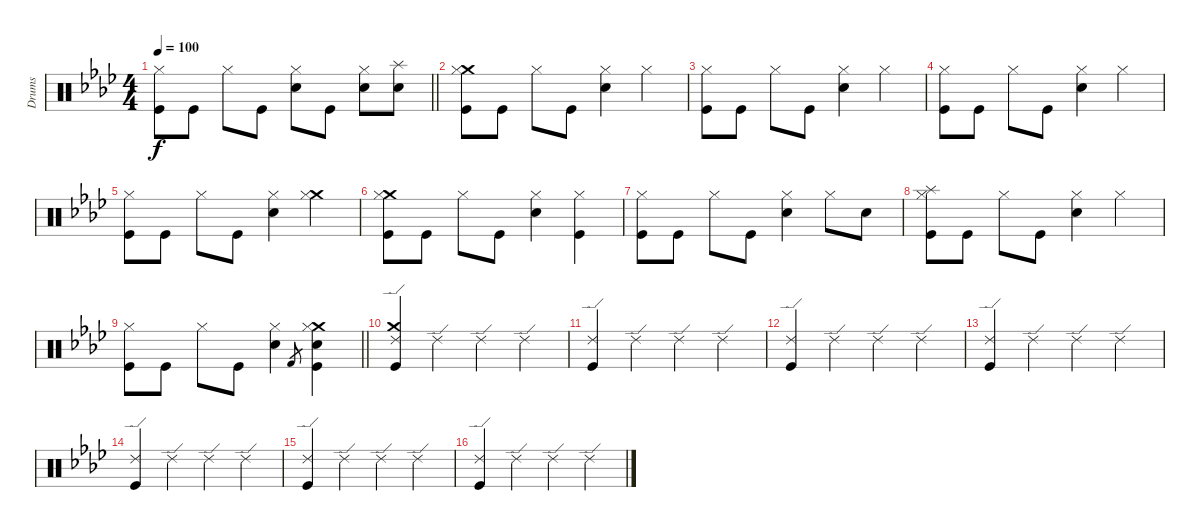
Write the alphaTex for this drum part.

\track ("Drums" "Drums") {instrument percussion}
\staff {score}
\articulation defaults
\ts (4 4)
\tempo 100
\clef neutral
\barLineRight lightlight
\ks ab
("Hi-Hat (closed)" "Kick (hit)").8{dy f} "Kick (hit)".8 "Hi-Hat (closed)".8 "Kick (hit)".8 ("Hi-Hat (closed)" "Electric Snare (hit)").8 "Kick (hit)".8 ("Hi-Hat (closed)" "Electric Snare (hit)").8 ("Splash (hit)" "Electric Snare (hit)").8 |
("Crash medium (hit)" "Hi-Hat (closed)" "Kick (hit)").8 "Kick (hit)".8 "Hi-Hat (closed)".8 "Kick (hit)".8 ("Hi-Hat (closed)" "Electric Snare (hit)").4 "Hi-Hat (closed)".4 |
("Hi-Hat (closed)" "Kick (hit)").8 "Kick (hit)".8 "Hi-Hat (closed)".8 "Kick (hit)".8 ("Hi-Hat (closed)" "Electric Snare (hit)").4 "Hi-Hat (closed)".4 |
("Hi-Hat (closed)" "Kick (hit)").8 "Kick (hit)".8 "Hi-Hat (closed)".8 "Kick (hit)".8 ("Hi-Hat (closed)" "Electric Snare (hit)").4 "Hi-Hat (closed)".4 |
("Hi-Hat (closed)" "Kick (hit)").8 "Kick (hit)".8 "Hi-Hat (closed)".8 "Kick (hit)".8 ("Hi-Hat (closed)" "Electric Snare (hit)").4 ("Crash medium (hit)" "Hi-Hat (closed)").4 |
("Crash medium (hit)" "Hi-Hat (closed)" "Kick (hit)").8 "Kick (hit)".8 "Hi-Hat (closed)".8 "Kick (hit)".8 ("Hi-Hat (closed)" "Electric Snare (hit)").4 ("Hi-Hat (closed)" "Kick (hit)").4 |
("Hi-Hat (closed)" "Kick (hit)").8 "Kick (hit)".8 "Hi-Hat (closed)".8 "Kick (hit)".8 ("Hi-Hat (closed)" "Electric Snare (hit)").4 "Hi-Hat (closed)".8 "Electric Snare (hit)".8 |
("Splash (hit)" "Hi-Hat (closed)" "Kick (hit)").8 "Kick (hit)".8 "Hi-Hat (closed)".8 "Kick (hit)".8 ("Hi-Hat (closed)" "Electric Snare (hit)").4 "Hi-Hat (closed)".4 |
\barLineRight lightlight
("Hi-Hat (closed)" "Kick (hit)").8 "Kick (hit)".8 "Hi-Hat (closed)".8 "Kick (hit)".8 ("Hi-Hat (closed)" "Electric Snare (hit)").4 "Kick (hit) 2".8{gr} ("Crash medium (hit)" "Hi-Hat (closed)" "Electric Snare (hit)" "Kick (hit)").4 |
("Ride (edge) 2" "Crash medium (hit)" "Kick (hit)").4 "Ride (edge) 2".4 "Ride (edge) 2".4 "Ride (edge) 2".4 |
("Ride (edge) 2" "Kick (hit)").4 "Ride (edge) 2".4 "Ride (edge) 2".4 "Ride (edge) 2".4 |
("Ride (edge) 2" "Kick (hit)").4 "Ride (edge) 2".4 "Ride (edge) 2".4 "Ride (edge) 2".4 |
("Ride (edge) 2" "Kick (hit)").4 "Ride (edge) 2".4 "Ride (edge) 2".4 "Ride (edge) 2".4 |
("Ride (edge) 2" "Kick (hit)").4 "Ride (edge) 2".4 "Ride (edge) 2".4 "Ride (edge) 2".4 |
("Ride (edge) 2" "Kick (hit)").4 "Ride (edge) 2".4 "Ride (edge) 2".4 "Ride (edge) 2".4 |
("Ride (edge) 2" "Kick (hit)").4 "Ride (edge) 2".4 "Ride (edge) 2".4 "Ride (edge) 2".4
